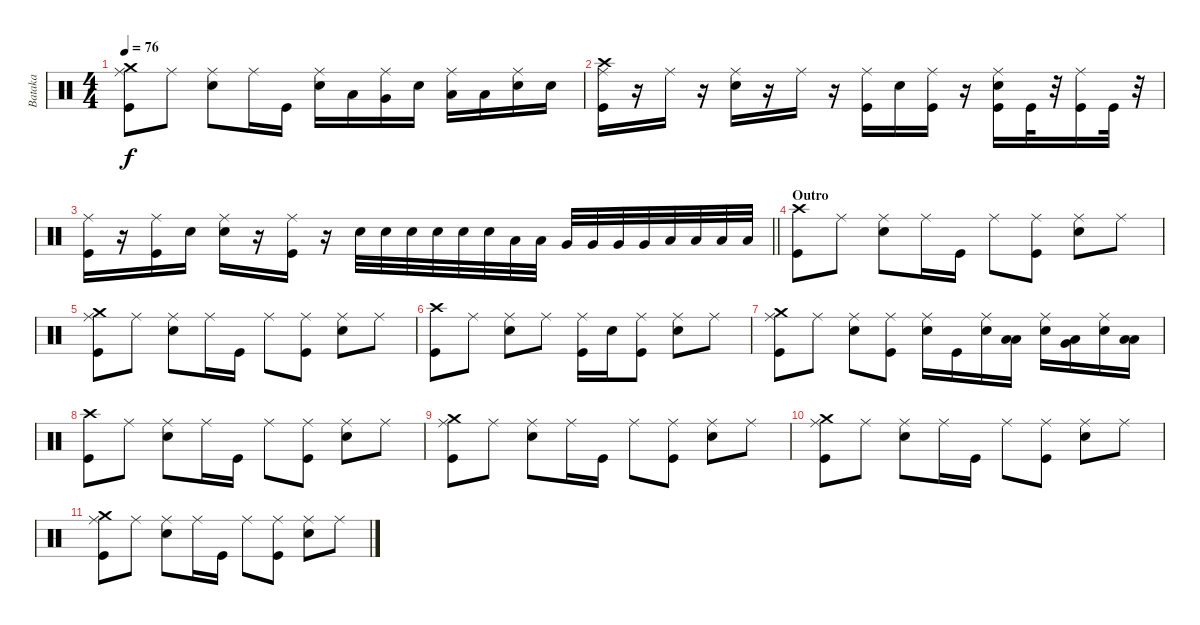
\track ("Bataka" "Bataka") {instrument percussion}
\staff {score}
\articulation defaults
\ts (4 4)
\tempo 76
\clef neutral
\ks c
("Ride (middle)" "Kick (hit)" "Crash medium (hit)").8{dy f} "Ride (middle)".8 ("Ride (middle)" "Snare (hit) 2").8 "Ride (middle)".16 "Kick (hit)".16 ("Ride (middle)" "Snare (hit) 2").16 "Low Floor Tom (hit)".16 ("Ride (middle)" "Very Low Tom (hit)").16 "Snare (hit) 2".16 ("Ride (middle)" "Low Floor Tom (hit)").16 "Low Tom (hit)".16 ("Ride (middle)" "Snare (hit) 2").16 "Snare (hit) 2".16 |
("Crash high (hit)" "Ride (middle)" "Kick (hit)").16 r.16 "Ride (middle)".16 r.16 ("Ride (middle)" "Snare (hit) 2").16 r.16 "Ride (middle)".16 r.16 ("Ride (middle)" "Kick (hit)").16 "Snare (hit) 2".16 ("Ride (middle)" "Kick (hit)").16 r.16 ("Ride (middle)" "Snare (hit) 2" "Kick (hit)").16 "Kick (hit)".32 r.32 ("Ride (middle)" "Kick (hit)").16 "Kick (hit)".32 r.32 |
\barLineRight lightlight
("Ride (middle)" "Kick (hit)").16 r.16 ("Ride (middle)" "Kick (hit)").16 "Snare (hit) 2".16 ("Ride (middle)" "Snare (hit) 2").16 r.16 ("Ride (middle)" "Kick (hit)").16 r.16 "Snare (hit) 2".32 "Snare (hit) 2".32 "Snare (hit) 2".32 "Snare (hit) 2".32 "Snare (hit) 2".32 "Snare (hit) 2".32 "Low Floor Tom (hit)".32 "Low Floor Tom (hit)".32 "Very Low Tom (hit)".32 "Very Low Tom (hit)".32 "Very Low Tom (hit)".32 "Very Low Tom (hit)".32 "Low Tom (hit)".32 "Low Tom (hit)".32 "Low Tom (hit)".32 "Low Tom (hit)".32 |
\section ("" "Outro")
("Crash high (hit)" "Kick (hit)").8 "Ride (middle)".8 ("Ride (middle)" "Snare (hit) 2").8 "Ride (middle)".16 "Kick (hit)".16 "Ride (middle)".8 ("Ride (middle)" "Kick (hit)").8 ("Ride (middle)" "Snare (hit) 2").8 "Ride (middle)".8 |
("Ride (middle)" "Kick (hit)" "Crash medium (hit)").8 "Ride (middle)".8 ("Ride (middle)" "Snare (hit) 2").8 "Ride (middle)".16 "Kick (hit)".16 "Ride (middle)".8 ("Ride (middle)" "Kick (hit)").8 ("Ride (middle)" "Snare (hit) 2").8 "Ride (middle)".8 |
("Kick (hit)" "Crash high (hit)").8 "Ride (middle)".8 ("Ride (middle)" "Snare (hit) 2").8 "Ride (middle)".8 ("Ride (middle)" "Kick (hit)").16 "Snare (hit) 2".16 ("Ride (middle)" "Kick (hit)").8 ("Ride (middle)" "Snare (hit) 2").8 "Ride (middle)".8 |
("Ride (middle)" "Kick (hit)" "Crash medium (hit)").8 "Ride (middle)".8 ("Ride (middle)" "Snare (hit) 2").8 ("Ride (middle)" "Kick (hit)").8 ("Ride (middle)" "Snare (hit) 2").16 "Kick (hit)".16 ("Ride (middle)" "Snare (hit) 2").16 ("Low Floor Tom (hit)" "Low Tom (hit)").16 ("Ride (middle)" "Snare (hit) 2").16 ("Low Floor Tom (hit)" "Very Low Tom (hit)").16 ("Ride (middle)" "Snare (hit) 2").16 ("Low Tom (hit)" "Low Floor Tom (hit)").16 |
("Crash high (hit)" "Kick (hit)").8 "Ride (middle)".8 ("Ride (middle)" "Snare (hit) 2").8 "Ride (middle)".16 "Kick (hit)".16 "Ride (middle)".8 ("Ride (middle)" "Kick (hit)").8 ("Ride (middle)" "Snare (hit) 2").8 "Ride (middle)".8 |
("Ride (middle)" "Kick (hit)" "Crash medium (hit)").8 "Ride (middle)".8 ("Ride (middle)" "Snare (hit) 2").8 "Ride (middle)".16 "Kick (hit)".16 "Ride (middle)".8 ("Ride (middle)" "Kick (hit)").8 ("Ride (middle)" "Snare (hit) 2").8 "Ride (middle)".8 |
("Ride (middle)" "Kick (hit)" "Crash medium (hit)").8 "Ride (middle)".8 ("Ride (middle)" "Snare (hit) 2").8 "Ride (middle)".16 "Kick (hit)".16 "Ride (middle)".8 ("Ride (middle)" "Kick (hit)").8 ("Ride (middle)" "Snare (hit) 2").8 "Ride (middle)".8 |
("Ride (middle)" "Kick (hit)" "Crash medium (hit)").8 "Ride (middle)".8 ("Ride (middle)" "Snare (hit) 2").8 "Ride (middle)".16 "Kick (hit)".16 "Ride (middle)".8 ("Ride (middle)" "Kick (hit)").8 ("Ride (middle)" "Snare (hit) 2").8 "Ride (middle)".8
